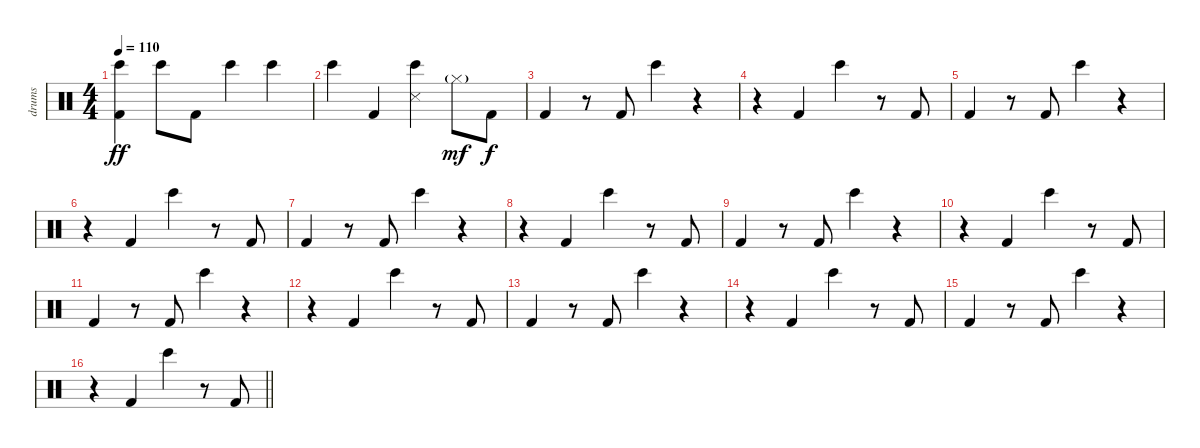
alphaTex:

\track ("drums" "drums") {instrument percussion}
\staff {score}
\articulation defaults
\ts (4 4)
\section ("" "")
\tempo 110
\clef neutral
\ks c
("Bongo High (hit)" "Kick (hit) 2").4{dy ff} "Bongo High (hit)".8 "Kick (hit) 2".8 "Bongo High (hit)".4 "Bongo High (hit)".4 |
"Bongo High (hit)".4 "Kick (hit) 2".4 ("Bongo High (hit)" "Snare (side stick) 3").4 "Hi-Hat (closed)"{g}.8{dy mf} "Kick (hit) 2".8{dy f} |
"Kick (hit) 2".4 r.8 "Kick (hit) 2".8 "Bongo High (hit)".4 r.4 |
r.4 "Kick (hit) 2".4 "Bongo High (hit)".4 r.8 "Kick (hit) 2".8 |
"Kick (hit) 2".4 r.8 "Kick (hit) 2".8 "Bongo High (hit)".4 r.4 |
r.4 "Kick (hit) 2".4 "Bongo High (hit)".4 r.8 "Kick (hit) 2".8 |
"Kick (hit) 2".4 r.8 "Kick (hit) 2".8 "Bongo High (hit)".4 r.4 |
r.4 "Kick (hit) 2".4 "Bongo High (hit)".4 r.8 "Kick (hit) 2".8 |
"Kick (hit) 2".4 r.8 "Kick (hit) 2".8 "Bongo High (hit)".4 r.4 |
r.4 "Kick (hit) 2".4 "Bongo High (hit)".4 r.8 "Kick (hit) 2".8 |
"Kick (hit) 2".4 r.8 "Kick (hit) 2".8 "Bongo High (hit)".4 r.4 |
r.4 "Kick (hit) 2".4 "Bongo High (hit)".4 r.8 "Kick (hit) 2".8 |
"Kick (hit) 2".4 r.8 "Kick (hit) 2".8 "Bongo High (hit)".4 r.4 |
r.4 "Kick (hit) 2".4 "Bongo High (hit)".4 r.8 "Kick (hit) 2".8 |
"Kick (hit) 2".4 r.8 "Kick (hit) 2".8 "Bongo High (hit)".4 r.4 |
\barLineRight lightlight
r.4 "Kick (hit) 2".4 "Bongo High (hit)".4 r.8 "Kick (hit) 2".8
